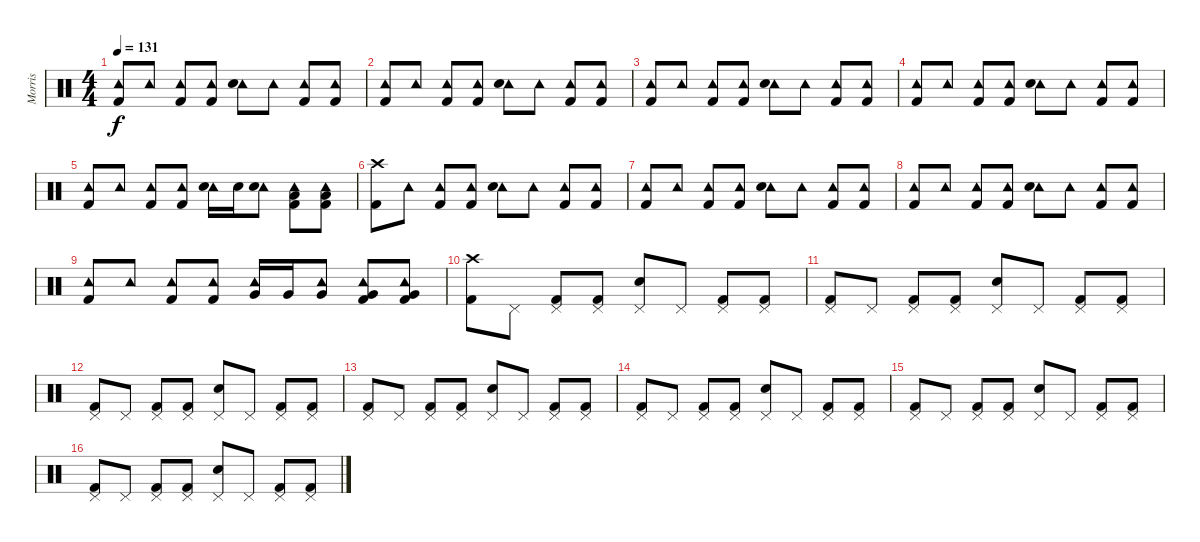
\track ("Morris" "Morris") {instrument percussion}
\staff {score}
\articulation defaults
\ts (4 4)
\tempo 131
\clef neutral
\ks c
("Tambourine (hit)" "Kick (hit) 2").8{dy f} "Tambourine (hit)".8 ("Tambourine (hit)" "Kick (hit) 2").8 ("Tambourine (hit)" "Kick (hit) 2").8 ("Tambourine (hit)" "Electric Snare (hit)").8 "Tambourine (hit)".8 ("Tambourine (hit)" "Kick (hit) 2").8 ("Tambourine (hit)" "Kick (hit) 2").8 |
("Tambourine (hit)" "Kick (hit) 2").8 "Tambourine (hit)".8 ("Tambourine (hit)" "Kick (hit) 2").8 ("Tambourine (hit)" "Kick (hit) 2").8 ("Tambourine (hit)" "Electric Snare (hit)").8 "Tambourine (hit)".8 ("Tambourine (hit)" "Kick (hit) 2").8 ("Tambourine (hit)" "Kick (hit) 2").8 |
("Tambourine (hit)" "Kick (hit) 2").8 "Tambourine (hit)".8 ("Tambourine (hit)" "Kick (hit) 2").8 ("Tambourine (hit)" "Kick (hit) 2").8 ("Tambourine (hit)" "Electric Snare (hit)").8 "Tambourine (hit)".8 ("Tambourine (hit)" "Kick (hit) 2").8 ("Tambourine (hit)" "Kick (hit) 2").8 |
("Tambourine (hit)" "Kick (hit) 2").8 "Tambourine (hit)".8 ("Tambourine (hit)" "Kick (hit) 2").8 ("Tambourine (hit)" "Kick (hit) 2").8 ("Tambourine (hit)" "Electric Snare (hit)").8 "Tambourine (hit)".8 ("Tambourine (hit)" "Kick (hit) 2").8 ("Tambourine (hit)" "Kick (hit) 2").8 |
("Tambourine (hit)" "Kick (hit) 2").8 "Tambourine (hit)".8 ("Tambourine (hit)" "Kick (hit) 2").8 ("Tambourine (hit)" "Kick (hit) 2").8 ("Tambourine (hit)" "Electric Snare (hit)").16 "Electric Snare (hit)".16 ("Tambourine (hit)" "Electric Snare (hit)").8 ("Tambourine (hit)" "Low Floor Tom (hit)" "Kick (hit) 2").8 ("Tambourine (hit)" "Low Floor Tom (hit)" "Kick (hit) 2").8 |
("Crash high (hit)" "Kick (hit) 2").8 "Tambourine (hit)".8 ("Tambourine (hit)" "Kick (hit) 2").8 ("Tambourine (hit)" "Kick (hit) 2").8 ("Tambourine (hit)" "Electric Snare (hit)").8 "Tambourine (hit)".8 ("Tambourine (hit)" "Kick (hit) 2").8 ("Tambourine (hit)" "Kick (hit) 2").8 |
("Tambourine (hit)" "Kick (hit) 2").8 "Tambourine (hit)".8 ("Tambourine (hit)" "Kick (hit) 2").8 ("Tambourine (hit)" "Kick (hit) 2").8 ("Tambourine (hit)" "Electric Snare (hit)").8 "Tambourine (hit)".8 ("Tambourine (hit)" "Kick (hit) 2").8 ("Tambourine (hit)" "Kick (hit) 2").8 |
("Tambourine (hit)" "Kick (hit) 2").8 "Tambourine (hit)".8 ("Tambourine (hit)" "Kick (hit) 2").8 ("Tambourine (hit)" "Kick (hit) 2").8 ("Tambourine (hit)" "Electric Snare (hit)").8 "Tambourine (hit)".8 ("Tambourine (hit)" "Kick (hit) 2").8 ("Tambourine (hit)" "Kick (hit) 2").8 |
("Tambourine (hit)" "Kick (hit) 2").8 "Tambourine (hit)".8 ("Tambourine (hit)" "Kick (hit) 2").8 ("Tambourine (hit)" "Kick (hit) 2").8 ("Tambourine (hit)" "Very Low Tom (hit)").16 "Very Low Tom (hit)".16 ("Tambourine (hit)" "Very Low Tom (hit)").8 ("Tambourine (hit)" "Very Low Tom (hit)" "Kick (hit) 2").8 ("Tambourine (hit)" "Very Low Tom (hit)" "Kick (hit) 2").8 |
("Crash high (hit)" "Kick (hit) 2").8 "Pedal Hi-Hat (hit)".8 ("Pedal Hi-Hat (hit)" "Kick (hit) 2").8 ("Pedal Hi-Hat (hit)" "Kick (hit) 2").8 ("Pedal Hi-Hat (hit)" "Electric Snare (hit)").8 "Pedal Hi-Hat (hit)".8 ("Pedal Hi-Hat (hit)" "Kick (hit) 2").8 ("Pedal Hi-Hat (hit)" "Kick (hit) 2").8 |
("Pedal Hi-Hat (hit)" "Kick (hit) 2").8 "Pedal Hi-Hat (hit)".8 ("Pedal Hi-Hat (hit)" "Kick (hit) 2").8 ("Pedal Hi-Hat (hit)" "Kick (hit) 2").8 ("Pedal Hi-Hat (hit)" "Electric Snare (hit)").8 "Pedal Hi-Hat (hit)".8 ("Pedal Hi-Hat (hit)" "Kick (hit) 2").8 ("Pedal Hi-Hat (hit)" "Kick (hit) 2").8 |
("Pedal Hi-Hat (hit)" "Kick (hit) 2").8 "Pedal Hi-Hat (hit)".8 ("Pedal Hi-Hat (hit)" "Kick (hit) 2").8 ("Pedal Hi-Hat (hit)" "Kick (hit) 2").8 ("Pedal Hi-Hat (hit)" "Electric Snare (hit)").8 "Pedal Hi-Hat (hit)".8 ("Pedal Hi-Hat (hit)" "Kick (hit) 2").8 ("Pedal Hi-Hat (hit)" "Kick (hit) 2").8 |
("Pedal Hi-Hat (hit)" "Kick (hit) 2").8 "Pedal Hi-Hat (hit)".8 ("Pedal Hi-Hat (hit)" "Kick (hit) 2").8 ("Pedal Hi-Hat (hit)" "Kick (hit) 2").8 ("Pedal Hi-Hat (hit)" "Electric Snare (hit)").8 "Pedal Hi-Hat (hit)".8 ("Pedal Hi-Hat (hit)" "Kick (hit) 2").8 ("Pedal Hi-Hat (hit)" "Kick (hit) 2").8 |
("Pedal Hi-Hat (hit)" "Kick (hit) 2").8 "Pedal Hi-Hat (hit)".8 ("Pedal Hi-Hat (hit)" "Kick (hit) 2").8 ("Pedal Hi-Hat (hit)" "Kick (hit) 2").8 ("Pedal Hi-Hat (hit)" "Electric Snare (hit)").8 "Pedal Hi-Hat (hit)".8 ("Pedal Hi-Hat (hit)" "Kick (hit) 2").8 ("Pedal Hi-Hat (hit)" "Kick (hit) 2").8 |
("Pedal Hi-Hat (hit)" "Kick (hit) 2").8 "Pedal Hi-Hat (hit)".8 ("Pedal Hi-Hat (hit)" "Kick (hit) 2").8 ("Pedal Hi-Hat (hit)" "Kick (hit) 2").8 ("Pedal Hi-Hat (hit)" "Electric Snare (hit)").8 "Pedal Hi-Hat (hit)".8 ("Pedal Hi-Hat (hit)" "Kick (hit) 2").8 ("Pedal Hi-Hat (hit)" "Kick (hit) 2").8 |
("Pedal Hi-Hat (hit)" "Kick (hit) 2").8 "Pedal Hi-Hat (hit)".8 ("Pedal Hi-Hat (hit)" "Kick (hit) 2").8 ("Pedal Hi-Hat (hit)" "Kick (hit) 2").8 ("Pedal Hi-Hat (hit)" "Electric Snare (hit)").8 "Pedal Hi-Hat (hit)".8 ("Pedal Hi-Hat (hit)" "Kick (hit) 2").8 ("Pedal Hi-Hat (hit)" "Kick (hit) 2").8
